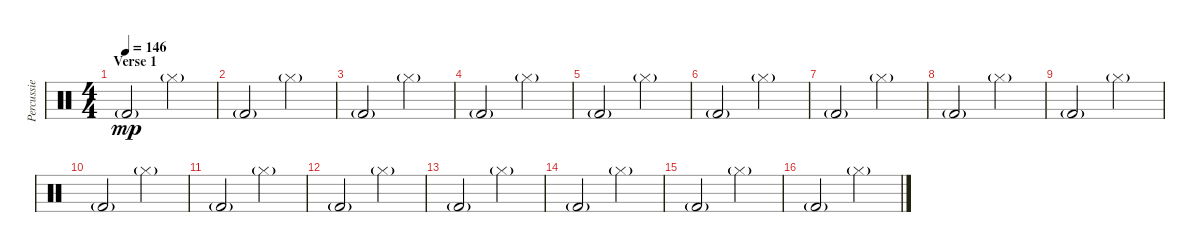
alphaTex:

\track ("Percussie" "Percussie") {instrument percussion}
\staff {score}
\articulation defaults
\ts (4 4)
\section ("" "Verse 1")
\tempo 146
\clef neutral
\ks c "Kick (hit) 2"{g}.2{dy mp} "Hi-Hat (closed)"{g}.2
|
"Kick (hit) 2"{g}.2 "Hi-Hat (closed)"{g}.2 |
"Kick (hit) 2"{g}.2 "Hi-Hat (closed)"{g}.2 |
"Kick (hit) 2"{g}.2 "Hi-Hat (closed)"{g}.2 |
"Kick (hit) 2"{g}.2 "Hi-Hat (closed)"{g}.2 |
"Kick (hit) 2"{g}.2 "Hi-Hat (closed)"{g}.2 |
"Kick (hit) 2"{g}.2 "Hi-Hat (closed)"{g}.2 |
"Kick (hit) 2"{g}.2 "Hi-Hat (closed)"{g}.2 |
"Kick (hit) 2"{g}.2 "Hi-Hat (closed)"{g}.2 |
"Kick (hit) 2"{g}.2 "Hi-Hat (closed)"{g}.2 |
"Kick (hit) 2"{g}.2 "Hi-Hat (closed)"{g}.2 |
"Kick (hit) 2"{g}.2 "Hi-Hat (closed)"{g}.2 |
"Kick (hit) 2"{g}.2 "Hi-Hat (closed)"{g}.2 |
"Kick (hit) 2"{g}.2 "Hi-Hat (closed)"{g}.2 |
"Kick (hit) 2"{g}.2 "Hi-Hat (closed)"{g}.2 |
"Kick (hit) 2"{g}.2 "Hi-Hat (closed)"{g}.2
